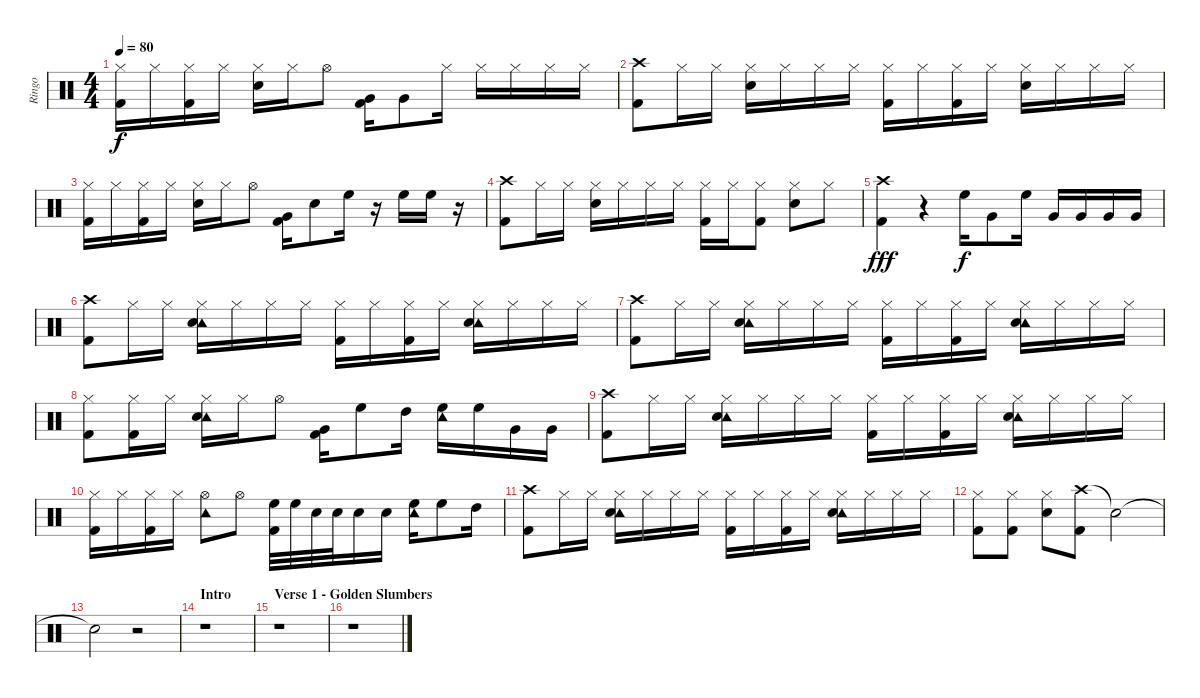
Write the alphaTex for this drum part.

\track ("Ringo" "Ringo") {instrument percussion}
\staff {score}
\articulation defaults
\ts (4 4)
\tempo 80
\clef neutral
\ks c
("Hi-Hat (closed)" "Kick (hit) 2").16{dy f} "Hi-Hat (closed)".16 ("Hi-Hat (closed)" "Kick (hit) 2").16 "Hi-Hat (closed)".16 ("Hi-Hat (closed)" "Snare (hit) 2").16 "Hi-Hat (closed)".16 "Hi-Hat (open)".8 ("Very Low Tom (hit)" "Kick (hit) 2").16 "Very Low Tom (hit)".8 "Hi-Hat (closed)".16 "Hi-Hat (closed)".16 "Hi-Hat (closed)".16 "Hi-Hat (closed)".16 "Hi-Hat (closed)".16 |
("Crash high (hit)" "Kick (hit) 2").8 "Hi-Hat (closed)".16 "Hi-Hat (closed)".16 ("Hi-Hat (closed)" "Snare (hit) 2").16 "Hi-Hat (closed)".16 "Hi-Hat (closed)".16 "Hi-Hat (closed)".16 ("Hi-Hat (closed)" "Kick (hit) 2").16 "Hi-Hat (closed)".16 ("Hi-Hat (closed)" "Kick (hit) 2").16 "Hi-Hat (closed)".16 ("Hi-Hat (closed)" "Snare (hit) 2").16 "Hi-Hat (closed)".16 "Hi-Hat (closed)".16 "Hi-Hat (closed)".16 |
("Hi-Hat (closed)" "Kick (hit) 2").16 "Hi-Hat (closed)".16 ("Hi-Hat (closed)" "Kick (hit) 2").16 "Hi-Hat (closed)".16 ("Hi-Hat (closed)" "Snare (hit) 2").16 "Hi-Hat (closed)".16 "Hi-Hat (open)".8 ("Very Low Tom (hit)" "Kick (hit) 2").16 "Snare (hit) 2".8 "High Floor Tom (hit)".16 r.16 "High Floor Tom (hit)".16 "High Floor Tom (hit)".16 r.16 |
("Crash high (hit)" "Kick (hit) 2").8 "Hi-Hat (closed)".16 "Hi-Hat (closed)".16 ("Hi-Hat (closed)" "Snare (hit) 2").16 "Hi-Hat (closed)".16 "Hi-Hat (closed)".16 "Hi-Hat (closed)".16 ("Hi-Hat (closed)" "Kick (hit) 2").16 "Hi-Hat (closed)".16 ("Hi-Hat (closed)" "Kick (hit) 2").8 ("Hi-Hat (closed)" "Snare (hit) 2").8 "Hi-Hat (closed)".8 |
("Crash high (hit)" "Kick (hit) 2").4{dy fff} r.4 "High Floor Tom (hit)".16{dy f} "Very Low Tom (hit)".8 "High Floor Tom (hit)".16 "Very Low Tom (hit)".16 "Very Low Tom (hit)".16 "Very Low Tom (hit)".16 "Very Low Tom (hit)".16 |
("Crash high (hit)" "Kick (hit) 2").8 "Hi-Hat (closed)".16 "Hi-Hat (closed)".16 ("Tambourine (hit)" "Hi-Hat (closed)" "Snare (hit) 2").16 "Hi-Hat (closed)".16 "Hi-Hat (closed)".16 "Hi-Hat (closed)".16 ("Hi-Hat (closed)" "Kick (hit) 2").16 "Hi-Hat (closed)".16 ("Hi-Hat (closed)" "Kick (hit) 2").16 "Hi-Hat (closed)".16 ("Tambourine (hit)" "Hi-Hat (closed)" "Snare (hit) 2").16 "Hi-Hat (closed)".16 "Hi-Hat (closed)".16 "Hi-Hat (closed)".16 |
("Crash high (hit)" "Kick (hit) 2").8 "Hi-Hat (closed)".16 "Hi-Hat (closed)".16 ("Tambourine (hit)" "Hi-Hat (closed)" "Snare (hit) 2").16 "Hi-Hat (closed)".16 "Hi-Hat (closed)".16 "Hi-Hat (closed)".16 ("Hi-Hat (closed)" "Kick (hit) 2").16 "Hi-Hat (closed)".16 ("Hi-Hat (closed)" "Kick (hit) 2").16 "Hi-Hat (closed)".16 ("Tambourine (hit)" "Hi-Hat (closed)" "Snare (hit) 2").16 "Hi-Hat (closed)".16 "Hi-Hat (closed)".16 "Hi-Hat (closed)".16 |
("Hi-Hat (closed)" "Kick (hit) 2").8 ("Hi-Hat (closed)" "Kick (hit) 2").16 "Hi-Hat (closed)".16 ("Tambourine (hit)" "Hi-Hat (closed)" "Snare (hit) 2").16 "Hi-Hat (closed)".16 "Hi-Hat (open)".8 ("Very Low Tom (hit)" "Kick (hit) 2").16 "High Floor Tom (hit)".8 "High Tom (hit)".16 ("Tambourine (hit)" "High Floor Tom (hit)").16 "High Floor Tom (hit)".16 "Very Low Tom (hit)".16 "Very Low Tom (hit)".16 |
("Crash high (hit)" "Kick (hit) 2").8 "Hi-Hat (closed)".16 "Hi-Hat (closed)".16 ("Tambourine (hit)" "Hi-Hat (closed)" "Snare (hit) 2").16 "Hi-Hat (closed)".16 "Hi-Hat (closed)".16 "Hi-Hat (closed)".16 ("Hi-Hat (closed)" "Kick (hit) 2").16 "Hi-Hat (closed)".16 ("Hi-Hat (closed)" "Kick (hit) 2").16 "Hi-Hat (closed)".16 ("Tambourine (hit)" "Hi-Hat (closed)" "Snare (hit) 2").16 "Hi-Hat (closed)".16 "Hi-Hat (closed)".16 "Hi-Hat (closed)".16 |
("Hi-Hat (closed)" "Kick (hit) 2").16 "Hi-Hat (closed)".16 ("Hi-Hat (closed)" "Kick (hit) 2").16 "Hi-Hat (closed)".16 ("Tambourine (hit)" "Hi-Hat (open)").8 "Hi-Hat (open)".8 ("High Floor Tom (hit)" "Kick (hit) 2").32 "High Floor Tom (hit)".32 "Snare (hit) 2".32 "Snare (hit) 2".32 "Snare (hit) 2".16 "Snare (hit) 2".16 ("Tambourine (hit)" "High Floor Tom (hit)").16 "High Floor Tom (hit)".8 "High Tom (hit)".16 |
("Crash high (hit)" "Kick (hit) 2").8 "Hi-Hat (closed)".16 "Hi-Hat (closed)".16 ("Tambourine (hit)" "Hi-Hat (closed)" "Snare (hit) 2").16 "Hi-Hat (closed)".16 "Hi-Hat (closed)".16 "Hi-Hat (closed)".16 ("Hi-Hat (closed)" "Kick (hit) 2").16 "Hi-Hat (closed)".16 ("Hi-Hat (closed)" "Kick (hit) 2").16 "Hi-Hat (closed)".16 ("Tambourine (hit)" "Hi-Hat (closed)" "Snare (hit) 2").16 "Hi-Hat (closed)".16 "Hi-Hat (closed)".16 "Hi-Hat (closed)".16 |
("Hi-Hat (closed)" "Kick (hit) 2").8 ("Hi-Hat (closed)" "Kick (hit) 2").8 ("Hi-Hat (closed)" "Snare (hit) 2").8 ("Crash high (hit)" "Kick (hit) 2").8 "Snare (hit)"{t}.2 |
"Snare (hit)"{t}.2 r.2 |
\section ("" "Intro")
r.1 |
\section ("" "Verse 1 - Golden Slumbers")
r.1 |
r.1
